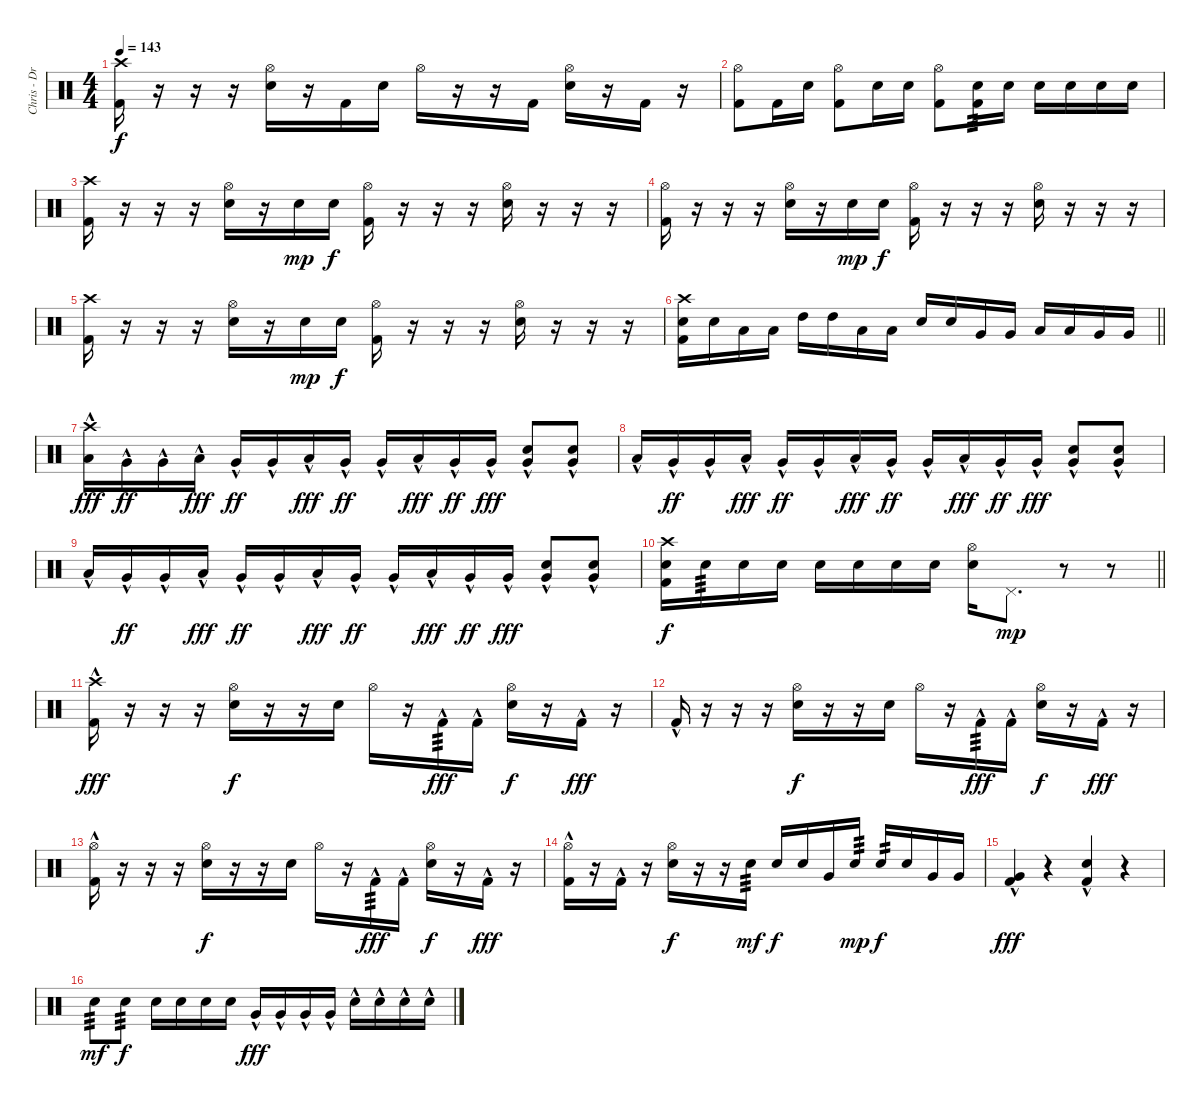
\track ("Chris - Drums" "Chris - Dr") {instrument percussion}
\staff {score}
\articulation defaults
\ts (4 4)
\tempo 143
\clef neutral
\ks c
("Crash high (hit)" "Kick (hit) 2").16{dy f} r.16 r.16 r.16 ("Hi-Hat (open)" "Electric Snare (hit)").16 r.16 "Kick (hit) 2".16 "Electric Snare (hit)".16 "Hi-Hat (open)".16 r.16 r.16 "Kick (hit) 2".16 ("Hi-Hat (open)" "Electric Snare (hit)").16 r.16 "Kick (hit) 2".16 r.16 |
("Hi-Hat (open)" "Kick (hit) 2").8 "Kick (hit) 2".16 "Electric Snare (hit)".16 ("Hi-Hat (open)" "Kick (hit) 2").8 "Electric Snare (hit)".16 "Electric Snare (hit)".16 ("Hi-Hat (open)" "Kick (hit) 2").8 ("Electric Snare (hit)" "Kick (hit) 2").16{tp 3} "Electric Snare (hit)".16 "Electric Snare (hit)".16 "Electric Snare (hit)".16 "Electric Snare (hit)".16 "Electric Snare (hit)".16 |
("Crash high (hit)" "Kick (hit) 2").16 r.16 r.16 r.16 ("Hi-Hat (open)" "Electric Snare (hit)").16 r.16 "Electric Snare (hit)".16{dy mp} "Electric Snare (hit)".16{dy f} ("Hi-Hat (open)" "Kick (hit) 2").16 r.16 r.16 r.16 ("Hi-Hat (open)" "Electric Snare (hit)").16 r.16 r.16 r.16 |
("Hi-Hat (open)" "Kick (hit) 2").16 r.16 r.16 r.16 ("Hi-Hat (open)" "Electric Snare (hit)").16 r.16 "Electric Snare (hit)".16{dy mp} "Electric Snare (hit)".16{dy f} ("Hi-Hat (open)" "Kick (hit) 2").16 r.16 r.16 r.16 ("Hi-Hat (open)" "Electric Snare (hit)").16 r.16 r.16 r.16 |
("Crash high (hit)" "Kick (hit) 2").16 r.16 r.16 r.16 ("Hi-Hat (open)" "Electric Snare (hit)").16 r.16 "Electric Snare (hit)".16{dy mp} "Electric Snare (hit)".16{dy f} ("Hi-Hat (open)" "Kick (hit) 2").16 r.16 r.16 r.16 ("Hi-Hat (open)" "Electric Snare (hit)").16 r.16 r.16 r.16 |
\barLineRight lightlight
("Crash high (hit)" "Electric Snare (hit)" "Kick (hit) 2").16 "Electric Snare (hit)".16 "Low Tom (hit)".16 "Low Tom (hit)".16 "High Tom (hit)".16 "High Tom (hit)".16 "Low Tom (hit)".16 "Low Tom (hit)".16 "Electric Snare (hit)".16 "Electric Snare (hit)".16 "Very Low Tom (hit)".16 "Very Low Tom (hit)".16 "Low Tom (hit)".16 "Low Tom (hit)".16 "Very Low Tom (hit)".16 "Very Low Tom (hit)".16 |
("Crash high (hit)"{hac} "Low Tom (hit)"{hac}).16{dy fff} "Very Low Tom (hit)"{hac}.16{dy ff} "Very Low Tom (hit)"{hac}.16 "Low Tom (hit)"{hac}.16{dy fff} "Very Low Tom (hit)"{hac}.16{dy ff} "Very Low Tom (hit)"{hac}.16 "Low Tom (hit)"{hac}.16{dy fff} "Very Low Tom (hit)"{hac}.16{dy ff} "Very Low Tom (hit)"{hac}.16 "Low Tom (hit)"{hac}.16{dy fff} "Very Low Tom (hit)"{hac}.16{dy ff} "Very Low Tom (hit)"{hac}.16{dy fff} ("Electric Snare (hit)"{hac} "Very Low Tom (hit)"{hac}).8 ("Electric Snare (hit)"{hac} "Very Low Tom (hit)"{hac}).8 |
"Low Tom (hit)"{hac}.16 "Very Low Tom (hit)"{hac}.16{dy ff} "Very Low Tom (hit)"{hac}.16 "Low Tom (hit)"{hac}.16{dy fff} "Very Low Tom (hit)"{hac}.16{dy ff} "Very Low Tom (hit)"{hac}.16 "Low Tom (hit)"{hac}.16{dy fff} "Very Low Tom (hit)"{hac}.16{dy ff} "Very Low Tom (hit)"{hac}.16 "Low Tom (hit)"{hac}.16{dy fff} "Very Low Tom (hit)"{hac}.16{dy ff} "Very Low Tom (hit)"{hac}.16{dy fff} ("Electric Snare (hit)"{hac} "Very Low Tom (hit)"{hac}).8 ("Electric Snare (hit)"{hac} "Very Low Tom (hit)"{hac}).8 |
"Low Tom (hit)"{hac}.16 "Very Low Tom (hit)"{hac}.16{dy ff} "Very Low Tom (hit)"{hac}.16 "Low Tom (hit)"{hac}.16{dy fff} "Very Low Tom (hit)"{hac}.16{dy ff} "Very Low Tom (hit)"{hac}.16 "Low Tom (hit)"{hac}.16{dy fff} "Very Low Tom (hit)"{hac}.16{dy ff} "Very Low Tom (hit)"{hac}.16 "Low Tom (hit)"{hac}.16{dy fff} "Very Low Tom (hit)"{hac}.16{dy ff} "Very Low Tom (hit)"{hac}.16{dy fff} ("Electric Snare (hit)"{hac} "Very Low Tom (hit)"{hac}).8 ("Electric Snare (hit)"{hac} "Very Low Tom (hit)"{hac}).8 |
\barLineRight lightlight
("Crash high (hit)" "Electric Snare (hit)" "Kick (hit) 2").16{dy f} "Electric Snare (hit)".16{tp 3} "Electric Snare (hit)".16 "Electric Snare (hit)".16 "Electric Snare (hit)".16 "Electric Snare (hit)".16 "Electric Snare (hit)".16 "Electric Snare (hit)".16 ("Hi-Hat (open)" "Electric Snare (hit)").16 "Pedal Hi-Hat (hit)".8{d dy mp} r.8 r.8 |
("Crash high (hit)" "Kick (hit) 2"{hac}).16{dy fff} r.16 r.16 r.16 ("Hi-Hat (open)" "Electric Snare (hit)").16{dy f} r.16 r.16 "Electric Snare (hit)".16 "Hi-Hat (open)".16 r.16 "Kick (hit) 2"{hac}.16{tp 3 dy fff} "Kick (hit) 2"{hac}.16 ("Hi-Hat (open)" "Electric Snare (hit)").16{dy f} r.16 "Kick (hit) 2"{hac}.16{dy fff} r.16 |
"Kick (hit) 2"{hac}.16 r.16 r.16 r.16 ("Hi-Hat (open)" "Electric Snare (hit)").16{dy f} r.16 r.16 "Electric Snare (hit)".16 "Hi-Hat (open)".16 r.16 "Kick (hit) 2"{hac}.16{tp 3 dy fff} "Kick (hit) 2"{hac}.16 ("Hi-Hat (open)" "Electric Snare (hit)").16{dy f} r.16 "Kick (hit) 2"{hac}.16{dy fff} r.16 |
("Hi-Hat (open)" "Kick (hit) 2"{hac}).16 r.16 r.16 r.16 ("Hi-Hat (open)" "Electric Snare (hit)").16{dy f} r.16 r.16 "Electric Snare (hit)".16 "Hi-Hat (open)".16 r.16 "Kick (hit) 2"{hac}.16{tp 3 dy fff} "Kick (hit) 2"{hac}.16 ("Hi-Hat (open)" "Electric Snare (hit)").16{dy f} r.16 "Kick (hit) 2"{hac}.16{dy fff} r.16 |
("Hi-Hat (open)" "Kick (hit) 2"{hac}).16 r.16 "Kick (hit) 2"{hac}.16 r.16 ("Hi-Hat (open)" "Electric Snare (hit)").16{dy f} r.16 r.16 "Electric Snare (hit)".16{tp 3 dy mf} "Electric Snare (hit)".16{dy f} "Electric Snare (hit)".16 "Very Low Tom (hit)".16 "Electric Snare (hit)".16{tp 3 dy mp} "Electric Snare (hit)".16{tp 2 dy f} "Electric Snare (hit)".16 "Very Low Tom (hit)".16 "Very Low Tom (hit)".16 |
("Very Low Tom (hit)" "Kick (hit) 2"{hac}).4{dy fff} r.4 ("Electric Snare (hit)" "Kick (hit) 2"{hac}).4 r.4 |
"Electric Snare (hit)".8{tp 3 dy mf} "Electric Snare (hit)".8{tp 3 dy f} "Electric Snare (hit)".16 "Electric Snare (hit)".16 "Electric Snare (hit)".16 "Electric Snare (hit)".16 "Very Low Tom (hit)"{hac}.16{dy fff} "Very Low Tom (hit)"{hac}.16 "Very Low Tom (hit)"{hac}.16 "Very Low Tom (hit)"{hac}.16 "Electric Snare (hit)"{hac}.16 "Electric Snare (hit)"{hac}.16 "Electric Snare (hit)"{hac}.16 "Electric Snare (hit)"{hac}.16
